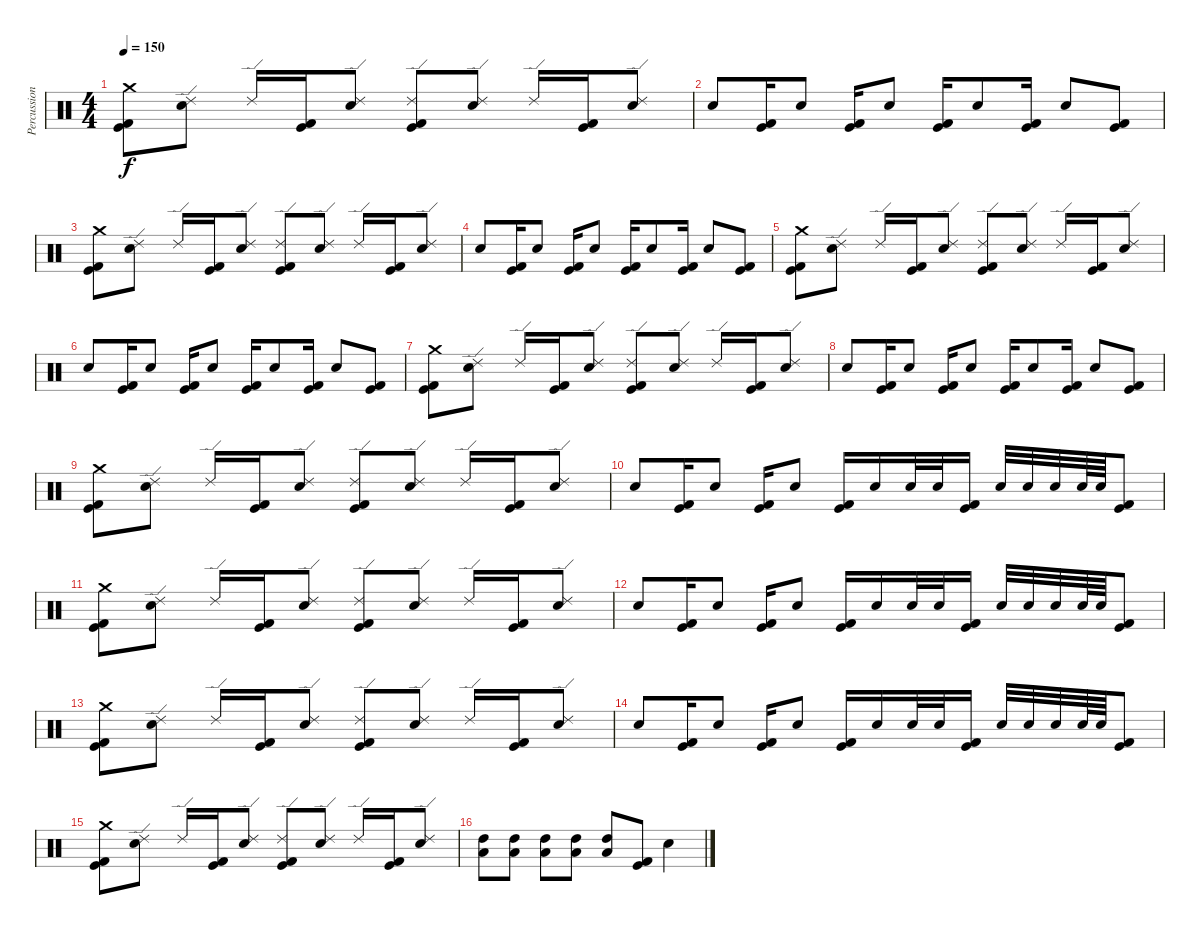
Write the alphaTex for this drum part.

\track ("Percussion" "Percussion") {instrument percussion}
\staff {score}
\articulation defaults
\ts (4 4)
\tempo 150
\clef neutral
\ks c
("Crash medium (hit)" "Kick (hit)" "Kick (hit) 2").8{dy f} ("Ride (edge) 2" "Electric Snare (hit)").8 "Ride (edge) 2".16 ("Kick (hit)" "Kick (hit) 2").16 ("Ride (edge) 2" "Electric Snare (hit)").8 ("Ride (edge) 2" "Kick (hit)" "Kick (hit) 2").8 ("Ride (edge) 2" "Electric Snare (hit)").8 "Ride (edge) 2".16 ("Kick (hit)" "Kick (hit) 2").16 ("Ride (edge) 2" "Electric Snare (hit)").8 |
"Electric Snare (hit)".8 ("Kick (hit)" "Kick (hit) 2").16 "Electric Snare (hit)".8 ("Kick (hit)" "Kick (hit) 2").16 "Electric Snare (hit)".8 ("Kick (hit)" "Kick (hit) 2").16 "Electric Snare (hit)".8 ("Kick (hit)" "Kick (hit) 2").16 "Electric Snare (hit)".8 ("Kick (hit)" "Kick (hit) 2").8 |
("Crash medium (hit)" "Kick (hit)" "Kick (hit) 2").8 ("Ride (edge) 2" "Electric Snare (hit)").8 "Ride (edge) 2".16 ("Kick (hit)" "Kick (hit) 2").16 ("Ride (edge) 2" "Electric Snare (hit)").8 ("Ride (edge) 2" "Kick (hit)" "Kick (hit) 2").8 ("Ride (edge) 2" "Electric Snare (hit)").8 "Ride (edge) 2".16 ("Kick (hit)" "Kick (hit) 2").16 ("Ride (edge) 2" "Electric Snare (hit)").8 |
"Electric Snare (hit)".8 ("Kick (hit)" "Kick (hit) 2").16 "Electric Snare (hit)".8 ("Kick (hit)" "Kick (hit) 2").16 "Electric Snare (hit)".8 ("Kick (hit)" "Kick (hit) 2").16 "Electric Snare (hit)".8 ("Kick (hit)" "Kick (hit) 2").16 "Electric Snare (hit)".8 ("Kick (hit)" "Kick (hit) 2").8 |
("Crash medium (hit)" "Kick (hit)" "Kick (hit) 2").8 ("Ride (edge) 2" "Electric Snare (hit)").8 "Ride (edge) 2".16 ("Kick (hit)" "Kick (hit) 2").16 ("Ride (edge) 2" "Electric Snare (hit)").8 ("Ride (edge) 2" "Kick (hit)" "Kick (hit) 2").8 ("Ride (edge) 2" "Electric Snare (hit)").8 "Ride (edge) 2".16 ("Kick (hit)" "Kick (hit) 2").16 ("Ride (edge) 2" "Electric Snare (hit)").8 |
"Electric Snare (hit)".8 ("Kick (hit)" "Kick (hit) 2").16 "Electric Snare (hit)".8 ("Kick (hit)" "Kick (hit) 2").16 "Electric Snare (hit)".8 ("Kick (hit)" "Kick (hit) 2").16 "Electric Snare (hit)".8 ("Kick (hit)" "Kick (hit) 2").16 "Electric Snare (hit)".8 ("Kick (hit)" "Kick (hit) 2").8 |
("Crash medium (hit)" "Kick (hit)" "Kick (hit) 2").8 ("Ride (edge) 2" "Electric Snare (hit)").8 "Ride (edge) 2".16 ("Kick (hit)" "Kick (hit) 2").16 ("Ride (edge) 2" "Electric Snare (hit)").8 ("Ride (edge) 2" "Kick (hit)" "Kick (hit) 2").8 ("Ride (edge) 2" "Electric Snare (hit)").8 "Ride (edge) 2".16 ("Kick (hit)" "Kick (hit) 2").16 ("Ride (edge) 2" "Electric Snare (hit)").8 |
"Electric Snare (hit)".8 ("Kick (hit)" "Kick (hit) 2").16 "Electric Snare (hit)".8 ("Kick (hit)" "Kick (hit) 2").16 "Electric Snare (hit)".8 ("Kick (hit)" "Kick (hit) 2").16 "Electric Snare (hit)".8 ("Kick (hit)" "Kick (hit) 2").16 "Electric Snare (hit)".8 ("Kick (hit)" "Kick (hit) 2").8 |
("Crash medium (hit)" "Kick (hit)" "Kick (hit) 2").8 ("Ride (edge) 2" "Electric Snare (hit)").8 "Ride (edge) 2".16 ("Kick (hit)" "Kick (hit) 2").16 ("Ride (edge) 2" "Electric Snare (hit)").8 ("Ride (edge) 2" "Kick (hit)" "Kick (hit) 2").8 ("Ride (edge) 2" "Electric Snare (hit)").8 "Ride (edge) 2".16 ("Kick (hit)" "Kick (hit) 2").16 ("Ride (edge) 2" "Electric Snare (hit)").8 |
"Electric Snare (hit)".8 ("Kick (hit)" "Kick (hit) 2").16 "Electric Snare (hit)".8 ("Kick (hit)" "Kick (hit) 2").16 "Electric Snare (hit)".8 ("Kick (hit)" "Kick (hit) 2").16 "Electric Snare (hit)".16 "Electric Snare (hit)".32 "Electric Snare (hit)".32 ("Kick (hit)" "Kick (hit) 2").16 "Electric Snare (hit)".32 "Electric Snare (hit)".32 "Electric Snare (hit)".32 "Electric Snare (hit)".64 "Electric Snare (hit)".64 ("Kick (hit)" "Kick (hit) 2").8 |
("Crash medium (hit)" "Kick (hit)" "Kick (hit) 2").8 ("Ride (edge) 2" "Electric Snare (hit)").8 "Ride (edge) 2".16 ("Kick (hit)" "Kick (hit) 2").16 ("Ride (edge) 2" "Electric Snare (hit)").8 ("Ride (edge) 2" "Kick (hit)" "Kick (hit) 2").8 ("Ride (edge) 2" "Electric Snare (hit)").8 "Ride (edge) 2".16 ("Kick (hit)" "Kick (hit) 2").16 ("Ride (edge) 2" "Electric Snare (hit)").8 |
"Electric Snare (hit)".8 ("Kick (hit)" "Kick (hit) 2").16 "Electric Snare (hit)".8 ("Kick (hit)" "Kick (hit) 2").16 "Electric Snare (hit)".8 ("Kick (hit)" "Kick (hit) 2").16 "Electric Snare (hit)".16 "Electric Snare (hit)".32 "Electric Snare (hit)".32 ("Kick (hit)" "Kick (hit) 2").16 "Electric Snare (hit)".32 "Electric Snare (hit)".32 "Electric Snare (hit)".32 "Electric Snare (hit)".64 "Electric Snare (hit)".64 ("Kick (hit)" "Kick (hit) 2").8 |
("Crash medium (hit)" "Kick (hit)" "Kick (hit) 2").8 ("Ride (edge) 2" "Electric Snare (hit)").8 "Ride (edge) 2".16 ("Kick (hit)" "Kick (hit) 2").16 ("Ride (edge) 2" "Electric Snare (hit)").8 ("Ride (edge) 2" "Kick (hit)" "Kick (hit) 2").8 ("Ride (edge) 2" "Electric Snare (hit)").8 "Ride (edge) 2".16 ("Kick (hit)" "Kick (hit) 2").16 ("Ride (edge) 2" "Electric Snare (hit)").8 |
"Electric Snare (hit)".8 ("Kick (hit)" "Kick (hit) 2").16 "Electric Snare (hit)".8 ("Kick (hit)" "Kick (hit) 2").16 "Electric Snare (hit)".8 ("Kick (hit)" "Kick (hit) 2").16 "Electric Snare (hit)".16 "Electric Snare (hit)".32 "Electric Snare (hit)".32 ("Kick (hit)" "Kick (hit) 2").16 "Electric Snare (hit)".32 "Electric Snare (hit)".32 "Electric Snare (hit)".32 "Electric Snare (hit)".64 "Electric Snare (hit)".64 ("Kick (hit)" "Kick (hit) 2").8 |
("Crash medium (hit)" "Kick (hit)" "Kick (hit) 2").8 ("Ride (edge) 2" "Electric Snare (hit)").8 "Ride (edge) 2".16 ("Kick (hit)" "Kick (hit) 2").16 ("Ride (edge) 2" "Electric Snare (hit)").8 ("Ride (edge) 2" "Kick (hit)" "Kick (hit) 2").8 ("Ride (edge) 2" "Electric Snare (hit)").8 "Ride (edge) 2".16 ("Kick (hit)" "Kick (hit) 2").16 ("Ride (edge) 2" "Electric Snare (hit)").8 |
("Low Tom (hit)" "High Tom (hit)").8 ("Low Tom (hit)" "High Tom (hit)").8 ("Low Tom (hit)" "High Tom (hit)").8 ("Low Tom (hit)" "High Tom (hit)").8 ("Low Tom (hit)" "High Tom (hit)").8 ("Kick (hit)" "Kick (hit) 2").8 "Electric Snare (hit)".4
